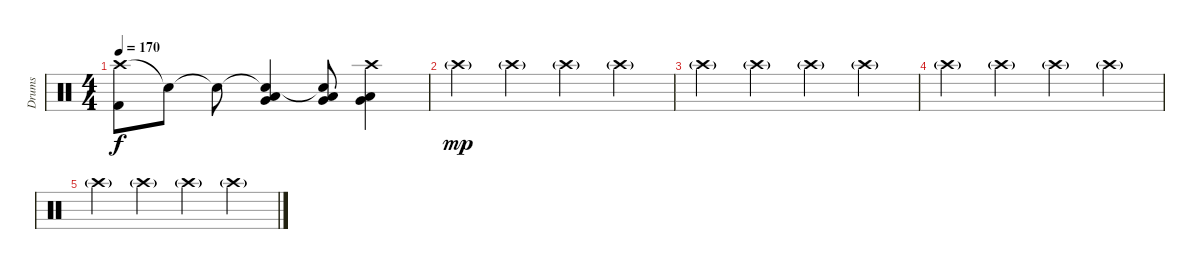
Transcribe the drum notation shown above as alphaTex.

\track ("Drums" "Drums") {instrument percussion}
\staff {score}
\articulation defaults
\ts (4 4)
\tempo 170
\clef neutral
\ks c
("Crash high (hit)" "Kick (hit) 2").8{dy f} "Snare (hit)"{t}.8 "Snare (hit)"{t}.8 ("Snare (hit)"{t} "Low Floor Tom (hit)" "Very Low Tom (hit)").4 ("Snare (hit)"{t} "Low Floor Tom (hit)" "Very Low Tom (hit)").8 ("Crash high (hit)" "Low Floor Tom (hit)" "Very Low Tom (hit)").4 |
"Crash high (hit)"{g}.4{dy mp} "Crash high (hit)"{g}.4 "Crash high (hit)"{g}.4 "Crash high (hit)"{g}.4 |
"Crash high (hit)"{g}.4 "Crash high (hit)"{g}.4 "Crash high (hit)"{g}.4 "Crash high (hit)"{g}.4 |
"Crash high (hit)"{g}.4 "Crash high (hit)"{g}.4 "Crash high (hit)"{g}.4 "Crash high (hit)"{g}.4 |
"Crash high (hit)"{g}.4 "Crash high (hit)"{g}.4 "Crash high (hit)"{g}.4 "Crash high (hit)"{g}.4
